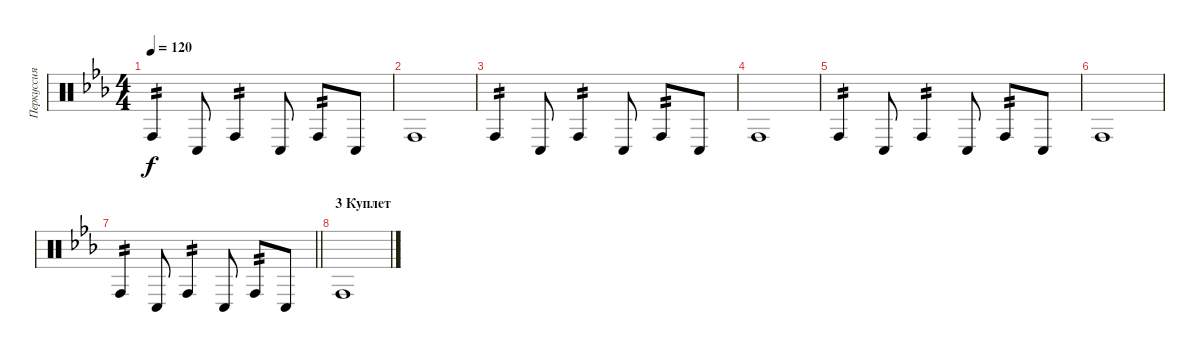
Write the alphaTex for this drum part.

\track ("Перкуссия" "Перкуссия") {instrument percussion}
\staff {score}
\articulation defaults
\ts (4 4)
\tempo 120
\clef neutral
\ks cminor "Conga high (hit)".4{tp 2 dy f} "Conga low (hit)".8 "Conga high (hit)".4{tp 2} "Conga low (hit)".8 "Conga high (hit)".8{tp 2} "Conga low (hit)".8
|
"Conga high (hit)".1 |
"Conga high (hit)".4{tp 2} "Conga low (hit)".8 "Conga high (hit)".4{tp 2} "Conga low (hit)".8 "Conga high (hit)".8{tp 2} "Conga low (hit)".8 |
"Conga high (hit)".1 |
"Conga high (hit)".4{tp 2} "Conga low (hit)".8 "Conga high (hit)".4{tp 2} "Conga low (hit)".8 "Conga high (hit)".8{tp 2} "Conga low (hit)".8 |
"Conga high (hit)".1 |
\barLineRight lightlight "Conga high (hit)".4{tp 2} "Conga low (hit)".8 "Conga high (hit)".4{tp 2} "Conga low (hit)".8 "Conga high (hit)".8{tp 2} "Conga low (hit)".8
|
\section ("" "3 Куплет")
"Conga high (hit)".1
